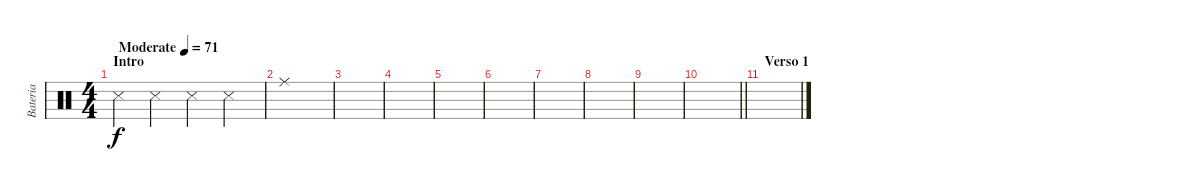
\track ("Bateria" "Bateria") {instrument percussion}
\staff {score}
\articulation defaults
\ts (4 4)
\section ("" "Intro")
\tempo (71 "Moderate")
\clef neutral
\ks c "Metronome (hit)".4{dy f} "Metronome (hit)".4 "Metronome (hit)".4 "Metronome (hit)".4
|
"Ride (middle)".1 |
|
|
|
|
|
|
|
\barLineRight lightlight
|
\section ("" "Verso 1")
